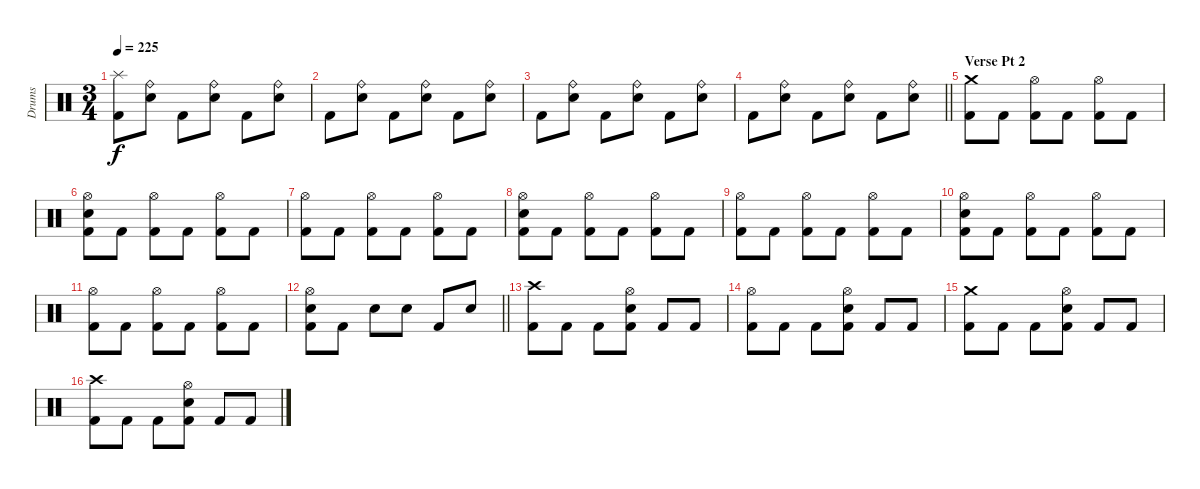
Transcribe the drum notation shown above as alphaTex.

\track ("Drums" "Drums") {instrument percussion}
\staff {score}
\articulation defaults
\ts (3 4)
\tempo 225
\clef neutral
\ks c
("Splash (hit)" "Kick (hit) 2").8{dy f} ("Ride (bell)" "Electric Snare (hit)").8 "Kick (hit) 2".8 ("Ride (bell)" "Electric Snare (hit)").8 "Kick (hit) 2".8 ("Ride (bell)" "Electric Snare (hit)").8 |
"Kick (hit) 2".8 ("Ride (bell)" "Electric Snare (hit)").8 "Kick (hit) 2".8 ("Ride (bell)" "Electric Snare (hit)").8 "Kick (hit) 2".8 ("Ride (bell)" "Electric Snare (hit)").8 |
"Kick (hit) 2".8 ("Ride (bell)" "Electric Snare (hit)").8 "Kick (hit) 2".8 ("Ride (bell)" "Electric Snare (hit)").8 "Kick (hit) 2".8 ("Ride (bell)" "Electric Snare (hit)").8 |
\barLineRight lightlight "Kick (hit) 2".8
("Ride (bell)" "Electric Snare (hit)").8 "Kick (hit) 2".8 ("Ride (bell)" "Electric Snare (hit)").8 "Kick (hit) 2".8 ("Ride (bell)" "Electric Snare (hit)").8 |
\section ("" "Verse Pt 2")
("Crash medium (hit)" "Kick (hit) 2").8 "Kick (hit) 2".8 ("Hi-Hat (open)" "Kick (hit) 2").8 "Kick (hit) 2".8 ("Hi-Hat (open)" "Kick (hit) 2").8 "Kick (hit) 2".8 |
("Hi-Hat (open)" "Electric Snare (hit)" "Kick (hit) 2").8 "Kick (hit) 2".8 ("Hi-Hat (open)" "Kick (hit) 2").8 "Kick (hit) 2".8 ("Hi-Hat (open)" "Kick (hit) 2").8 "Kick (hit) 2".8 |
("Hi-Hat (open)" "Kick (hit) 2").8 "Kick (hit) 2".8 ("Hi-Hat (open)" "Kick (hit) 2").8 "Kick (hit) 2".8 ("Hi-Hat (open)" "Kick (hit) 2").8 "Kick (hit) 2".8 |
("Hi-Hat (open)" "Electric Snare (hit)" "Kick (hit) 2").8 "Kick (hit) 2".8 ("Hi-Hat (open)" "Kick (hit) 2").8 "Kick (hit) 2".8 ("Hi-Hat (open)" "Kick (hit) 2").8 "Kick (hit) 2".8 |
("Hi-Hat (open)" "Kick (hit) 2").8 "Kick (hit) 2".8 ("Hi-Hat (open)" "Kick (hit) 2").8 "Kick (hit) 2".8 ("Hi-Hat (open)" "Kick (hit) 2").8 "Kick (hit) 2".8 |
("Hi-Hat (open)" "Electric Snare (hit)" "Kick (hit) 2").8 "Kick (hit) 2".8 ("Hi-Hat (open)" "Kick (hit) 2").8 "Kick (hit) 2".8 ("Hi-Hat (open)" "Kick (hit) 2").8 "Kick (hit) 2".8 |
("Hi-Hat (open)" "Kick (hit) 2").8 "Kick (hit) 2".8 ("Hi-Hat (open)" "Kick (hit) 2").8 "Kick (hit) 2".8 ("Hi-Hat (open)" "Kick (hit) 2").8 "Kick (hit) 2".8 |
\barLineRight lightlight
("Hi-Hat (open)" "Electric Snare (hit)" "Kick (hit) 2").8 "Kick (hit) 2".8 "Electric Snare (hit)".8 "Electric Snare (hit)".8 "Kick (hit) 2".8 "Electric Snare (hit)".8 |
("Crash high (hit)" "Kick (hit) 2").8 "Kick (hit) 2".8 "Kick (hit) 2".8 ("Hi-Hat (open)" "Electric Snare (hit)" "Kick (hit) 2").8 "Kick (hit) 2".8 "Kick (hit) 2".8 |
("Hi-Hat (open)" "Kick (hit) 2").8 "Kick (hit) 2".8 "Kick (hit) 2".8 ("Hi-Hat (open)" "Electric Snare (hit)" "Kick (hit) 2").8 "Kick (hit) 2".8 "Kick (hit) 2".8 |
("Crash medium (hit)" "Kick (hit) 2").8 "Kick (hit) 2".8 "Kick (hit) 2".8 ("Hi-Hat (open)" "Electric Snare (hit)" "Kick (hit) 2").8 "Kick (hit) 2".8 "Kick (hit) 2".8 |
("Crash high (hit)" "Kick (hit) 2").8 "Kick (hit) 2".8 "Kick (hit) 2".8 ("Hi-Hat (open)" "Electric Snare (hit)" "Kick (hit) 2").8 "Kick (hit) 2".8 "Kick (hit) 2".8
